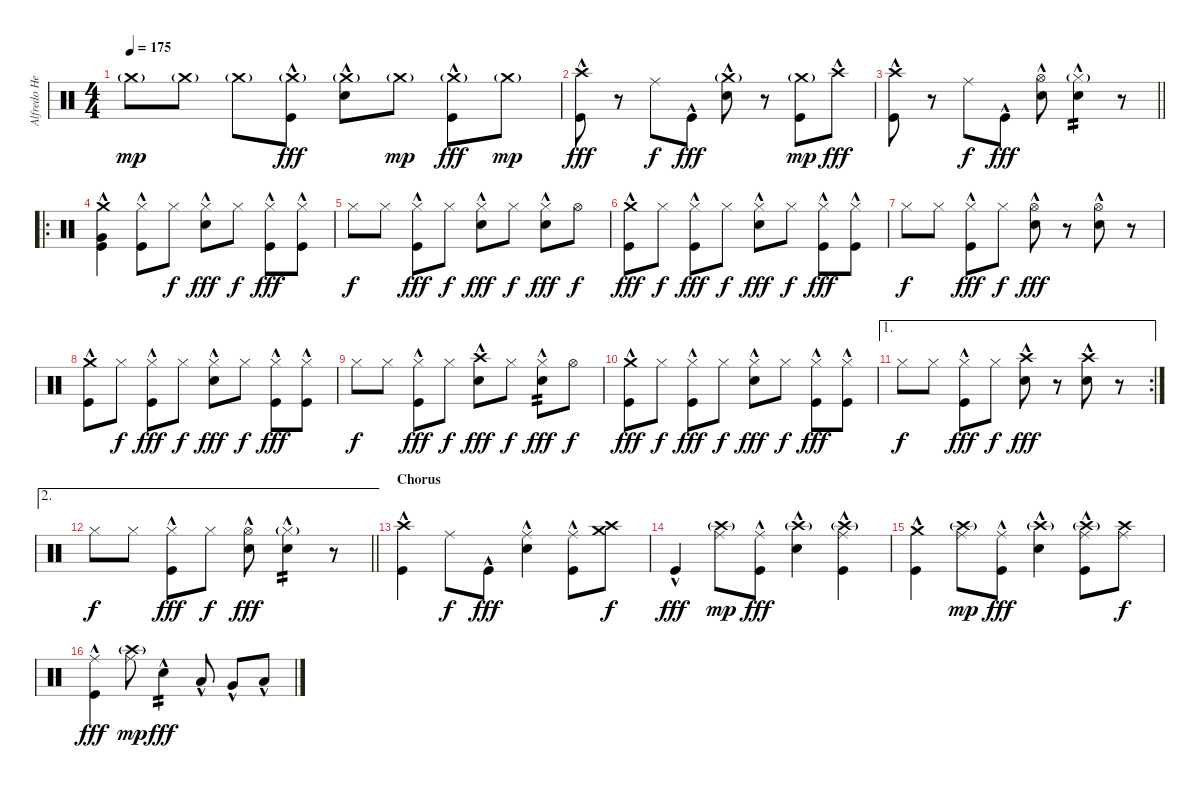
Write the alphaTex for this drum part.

\track ("Alfredo Hernández - Drums" "Alfredo He") {instrument percussion}
\staff {score}
\articulation defaults
\ts (4 4)
\tempo 175
\clef neutral
\ks c "Crash medium (hit)"{g}.8{dy mp} "Crash medium (hit)"{g}.8 "Crash medium (hit)"{g}.8
("Crash medium (hit)"{g} "Kick (hit)"{hac}).8{dy fff} ("Crash medium (hit)"{g} "Snare (hit) 2"{hac}).8 "Crash medium (hit)"{g}.8{dy mp} ("Crash medium (hit)"{g} "Kick (hit)"{hac}).8{dy fff} "Crash medium (hit)"{g}.8{dy mp} |
("Crash high (hit)"{hac} "Kick (hit)"{hac}).8{dy fff} r.8 "Ride (middle)".8{dy f} "Kick (hit)"{hac}.8{dy fff} ("Crash medium (hit)"{g} "Snare (hit) 2"{hac}).8 r.8 ("Crash medium (hit)"{g} "Kick (hit)").8{dy mp} "Crash high (hit)"{hac}.8{dy fff} |
\barLineRight lightlight
("Crash high (hit)"{hac} "Kick (hit)"{hac}).8 r.8 "Ride (middle)".8{dy f} "Kick (hit)"{hac}.8{dy fff} ("Hi-Hat (open)" "Snare (hit) 2"{hac}).8 ("Hi-Hat (closed)"{g} "Snare (hit) 2"{hac}).4{tp 2} r.8 |
\ro
("Crash medium (hit)" "Very Low Tom (hit)"{hac} "Kick (hit)"{hac}).4 ("Hi-Hat (closed)" "Kick (hit)"{hac}).8 "Hi-Hat (closed)".8{dy f} ("Hi-Hat (closed)" "Snare (hit) 2"{hac}).8{dy fff} "Hi-Hat (closed)".8{dy f} ("Hi-Hat (closed)" "Kick (hit)"{hac}).8{dy fff} ("Hi-Hat (closed)" "Kick (hit)"{hac}).8 |
"Hi-Hat (closed)".8{dy f} "Hi-Hat (closed)".8 ("Hi-Hat (closed)" "Kick (hit)"{hac}).8{dy fff} "Hi-Hat (closed)".8{dy f} ("Hi-Hat (closed)" "Snare (hit) 2"{hac}).8{dy fff} "Hi-Hat (closed)".8{dy f} ("Hi-Hat (closed)" "Snare (hit) 2"{hac}).8{dy fff} "Hi-Hat (open)".8{dy f} |
("Crash medium (hit)" "Kick (hit)"{hac}).8{dy fff} "Hi-Hat (closed)".8{dy f} ("Hi-Hat (closed)" "Kick (hit)"{hac}).8{dy fff} "Hi-Hat (closed)".8{dy f} ("Hi-Hat (closed)" "Snare (hit) 2"{hac}).8{dy fff} "Hi-Hat (closed)".8{dy f} ("Hi-Hat (closed)" "Kick (hit)"{hac}).8{dy fff} ("Hi-Hat (closed)" "Kick (hit)"{hac}).8 |
"Hi-Hat (closed)".8{dy f} "Hi-Hat (closed)".8 ("Hi-Hat (closed)" "Kick (hit)"{hac}).8{dy fff} "Hi-Hat (closed)".8{dy f} ("Hi-Hat (open)" "Snare (hit) 2"{hac}).8{dy fff} r.8 ("Hi-Hat (open)" "Snare (hit) 2"{hac}).8 r.8 |
("Crash medium (hit)" "Kick (hit)"{hac}).8 "Hi-Hat (closed)".8{dy f} ("Hi-Hat (closed)" "Kick (hit)"{hac}).8{dy fff} "Hi-Hat (closed)".8{dy f} ("Hi-Hat (closed)" "Snare (hit) 2"{hac}).8{dy fff} "Hi-Hat (closed)".8{dy f} ("Hi-Hat (closed)" "Kick (hit)"{hac}).8{dy fff} ("Hi-Hat (closed)" "Kick (hit)"{hac}).8 |
"Hi-Hat (closed)".8{dy f} "Hi-Hat (closed)".8 ("Hi-Hat (closed)" "Kick (hit)"{hac}).8{dy fff} "Hi-Hat (closed)".8{dy f} ("Crash high (hit)" "Snare (hit) 2"{hac}).8{dy fff} "Hi-Hat (closed)".8{dy f} ("Hi-Hat (closed)" "Snare (hit) 2"{hac}).8{tp 2 dy fff} "Hi-Hat (open)".8{dy f} |
("Crash medium (hit)" "Kick (hit)"{hac}).8{dy fff} "Hi-Hat (closed)".8{dy f} ("Hi-Hat (closed)" "Kick (hit)"{hac}).8{dy fff} "Hi-Hat (closed)".8{dy f} ("Hi-Hat (closed)" "Snare (hit) 2"{hac}).8{dy fff} "Hi-Hat (closed)".8{dy f} ("Hi-Hat (closed)" "Kick (hit)"{hac}).8{dy fff} ("Hi-Hat (closed)" "Kick (hit)"{hac}).8 |
\ae 1
\rc 2 "Hi-Hat (closed)".8{dy f} "Hi-Hat (closed)".8
("Hi-Hat (closed)" "Kick (hit)"{hac}).8{dy fff} "Hi-Hat (closed)".8{dy f} ("Crash high (hit)" "Snare (hit) 2"{hac}).8{dy fff} r.8 ("Crash high (hit)" "Snare (hit) 2"{hac}).8 r.8 |
\ae 2
\barLineRight lightlight "Hi-Hat (closed)".8{dy f} "Hi-Hat (closed)".8
("Hi-Hat (closed)" "Kick (hit)"{hac}).8{dy fff} "Hi-Hat (closed)".8{dy f} ("Hi-Hat (open)" "Snare (hit) 2"{hac}).8{dy fff} ("Hi-Hat (closed)"{g} "Snare (hit) 2"{hac}).4{tp 2} r.8 |
\section ("" "Chorus")
("Crash high (hit)" "Kick (hit)"{hac}).4 "Ride (middle)".8{dy f} "Kick (hit)"{hac}.8{dy fff} ("Ride (middle)" "Snare (hit) 2"{hac}).4 ("Ride (middle)" "Kick (hit)"{hac}).8 ("Crash high (hit)" "Crash medium (hit)").8{dy f} |
"Kick (hit)"{hac}.4{dy fff} ("Crash high (hit)"{g} "Ride (middle)").8{dy mp} ("Ride (middle)" "Kick (hit)"{hac}).8{dy fff} ("Crash high (hit)"{g} "Snare (hit) 2"{hac}).4 ("Crash high (hit)"{g} "Ride (middle)" "Kick (hit)"{hac}).4 |
("Crash medium (hit)" "Kick (hit)"{hac}).4 ("Crash high (hit)"{g} "Ride (middle)").8{dy mp} ("Ride (middle)" "Kick (hit)"{hac}).8{dy fff} ("Crash high (hit)"{g} "Snare (hit) 2"{hac}).4 ("Crash high (hit)"{g} "Ride (middle)" "Kick (hit)"{hac}).8 ("Crash high (hit)" "Ride (middle)").8{dy f} |
("Ride (middle)" "Kick (hit)"{hac}).4{dy fff} ("Crash high (hit)"{g} "Ride (middle)").8{dy mp} "Snare (hit) 2"{hac}.4{tp 2 dy fff} "Low Tom (hit)"{hac}.8 "Very Low Tom (hit)"{hac}.8 "Low Floor Tom (hit)"{hac}.8
